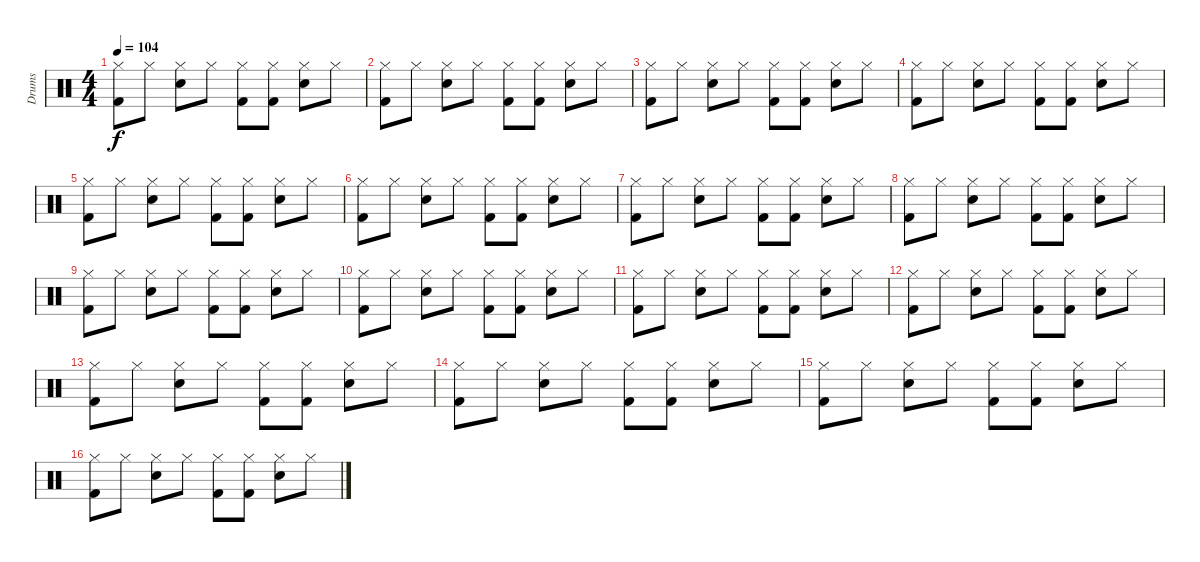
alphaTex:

\track ("Drums" "Drums") {instrument percussion}
\staff {score}
\articulation defaults
\ts (4 4)
\tempo 104
\clef neutral
\ks c
("Kick (hit) 2" "Hi-Hat (closed)").8{dy f} "Hi-Hat (closed)".8 ("Snare (hit) 2" "Hi-Hat (closed)").8 "Hi-Hat (closed)".8 ("Kick (hit) 2" "Hi-Hat (closed)").8 ("Kick (hit) 2" "Hi-Hat (closed)").8 ("Snare (hit) 2" "Hi-Hat (closed)").8 "Hi-Hat (closed)".8 |
("Kick (hit) 2" "Hi-Hat (closed)").8 "Hi-Hat (closed)".8 ("Snare (hit) 2" "Hi-Hat (closed)").8 "Hi-Hat (closed)".8 ("Kick (hit) 2" "Hi-Hat (closed)").8 ("Kick (hit) 2" "Hi-Hat (closed)").8 ("Snare (hit) 2" "Hi-Hat (closed)").8 "Hi-Hat (closed)".8 |
("Kick (hit) 2" "Hi-Hat (closed)").8 "Hi-Hat (closed)".8 ("Snare (hit) 2" "Hi-Hat (closed)").8 "Hi-Hat (closed)".8 ("Kick (hit) 2" "Hi-Hat (closed)").8 ("Kick (hit) 2" "Hi-Hat (closed)").8 ("Snare (hit) 2" "Hi-Hat (closed)").8 "Hi-Hat (closed)".8 |
("Kick (hit) 2" "Hi-Hat (closed)").8 "Hi-Hat (closed)".8 ("Snare (hit) 2" "Hi-Hat (closed)").8 "Hi-Hat (closed)".8 ("Kick (hit) 2" "Hi-Hat (closed)").8 ("Kick (hit) 2" "Hi-Hat (closed)").8 ("Snare (hit) 2" "Hi-Hat (closed)").8 "Hi-Hat (closed)".8 |
("Kick (hit) 2" "Hi-Hat (closed)").8 "Hi-Hat (closed)".8 ("Snare (hit) 2" "Hi-Hat (closed)").8 "Hi-Hat (closed)".8 ("Kick (hit) 2" "Hi-Hat (closed)").8 ("Kick (hit) 2" "Hi-Hat (closed)").8 ("Snare (hit) 2" "Hi-Hat (closed)").8 "Hi-Hat (closed)".8 |
("Kick (hit) 2" "Hi-Hat (closed)").8 "Hi-Hat (closed)".8 ("Snare (hit) 2" "Hi-Hat (closed)").8 "Hi-Hat (closed)".8 ("Kick (hit) 2" "Hi-Hat (closed)").8 ("Kick (hit) 2" "Hi-Hat (closed)").8 ("Snare (hit) 2" "Hi-Hat (closed)").8 "Hi-Hat (closed)".8 |
("Kick (hit) 2" "Hi-Hat (closed)").8 "Hi-Hat (closed)".8 ("Snare (hit) 2" "Hi-Hat (closed)").8 "Hi-Hat (closed)".8 ("Kick (hit) 2" "Hi-Hat (closed)").8 ("Kick (hit) 2" "Hi-Hat (closed)").8 ("Snare (hit) 2" "Hi-Hat (closed)").8 "Hi-Hat (closed)".8 |
("Kick (hit) 2" "Hi-Hat (closed)").8 "Hi-Hat (closed)".8 ("Snare (hit) 2" "Hi-Hat (closed)").8 "Hi-Hat (closed)".8 ("Kick (hit) 2" "Hi-Hat (closed)").8 ("Kick (hit) 2" "Hi-Hat (closed)").8 ("Snare (hit) 2" "Hi-Hat (closed)").8 "Hi-Hat (closed)".8 |
("Kick (hit) 2" "Hi-Hat (closed)").8 "Hi-Hat (closed)".8 ("Snare (hit) 2" "Hi-Hat (closed)").8 "Hi-Hat (closed)".8 ("Kick (hit) 2" "Hi-Hat (closed)").8 ("Kick (hit) 2" "Hi-Hat (closed)").8 ("Snare (hit) 2" "Hi-Hat (closed)").8 "Hi-Hat (closed)".8 |
("Kick (hit) 2" "Hi-Hat (closed)").8 "Hi-Hat (closed)".8 ("Snare (hit) 2" "Hi-Hat (closed)").8 "Hi-Hat (closed)".8 ("Kick (hit) 2" "Hi-Hat (closed)").8 ("Kick (hit) 2" "Hi-Hat (closed)").8 ("Snare (hit) 2" "Hi-Hat (closed)").8 "Hi-Hat (closed)".8 |
("Kick (hit) 2" "Hi-Hat (closed)").8 "Hi-Hat (closed)".8 ("Snare (hit) 2" "Hi-Hat (closed)").8 "Hi-Hat (closed)".8 ("Kick (hit) 2" "Hi-Hat (closed)").8 ("Kick (hit) 2" "Hi-Hat (closed)").8 ("Snare (hit) 2" "Hi-Hat (closed)").8 "Hi-Hat (closed)".8 |
("Kick (hit) 2" "Hi-Hat (closed)").8 "Hi-Hat (closed)".8 ("Snare (hit) 2" "Hi-Hat (closed)").8 "Hi-Hat (closed)".8 ("Kick (hit) 2" "Hi-Hat (closed)").8 ("Kick (hit) 2" "Hi-Hat (closed)").8 ("Snare (hit) 2" "Hi-Hat (closed)").8 "Hi-Hat (closed)".8 |
("Kick (hit) 2" "Hi-Hat (closed)").8 "Hi-Hat (closed)".8 ("Snare (hit) 2" "Hi-Hat (closed)").8 "Hi-Hat (closed)".8 ("Kick (hit) 2" "Hi-Hat (closed)").8 ("Kick (hit) 2" "Hi-Hat (closed)").8 ("Snare (hit) 2" "Hi-Hat (closed)").8 "Hi-Hat (closed)".8 |
("Kick (hit) 2" "Hi-Hat (closed)").8 "Hi-Hat (closed)".8 ("Snare (hit) 2" "Hi-Hat (closed)").8 "Hi-Hat (closed)".8 ("Kick (hit) 2" "Hi-Hat (closed)").8 ("Kick (hit) 2" "Hi-Hat (closed)").8 ("Snare (hit) 2" "Hi-Hat (closed)").8 "Hi-Hat (closed)".8 |
("Kick (hit) 2" "Hi-Hat (closed)").8 "Hi-Hat (closed)".8 ("Snare (hit) 2" "Hi-Hat (closed)").8 "Hi-Hat (closed)".8 ("Kick (hit) 2" "Hi-Hat (closed)").8 ("Kick (hit) 2" "Hi-Hat (closed)").8 ("Snare (hit) 2" "Hi-Hat (closed)").8 "Hi-Hat (closed)".8 |
("Kick (hit) 2" "Hi-Hat (closed)").8 "Hi-Hat (closed)".8 ("Snare (hit) 2" "Hi-Hat (closed)").8 "Hi-Hat (closed)".8 ("Kick (hit) 2" "Hi-Hat (closed)").8 ("Kick (hit) 2" "Hi-Hat (closed)").8 ("Snare (hit) 2" "Hi-Hat (closed)").8 "Hi-Hat (closed)".8
